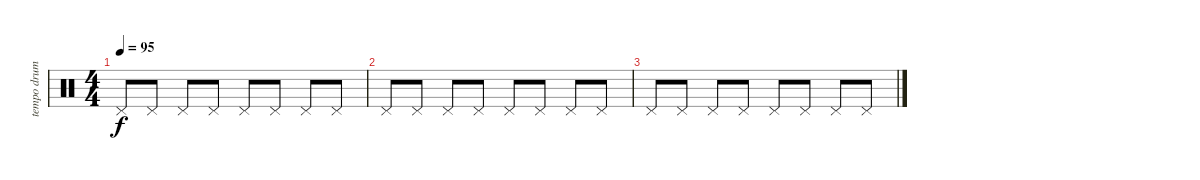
\track ("tempo drums" "tempo drum") {instrument percussion}
\staff {score}
\articulation defaults
\ts (4 4)
\tempo 95
\clef neutral
\ks c "Pedal Hi-Hat (hit)".8{dy f} "Pedal Hi-Hat (hit)".8 "Pedal Hi-Hat (hit)".8 "Pedal Hi-Hat (hit)".8 "Pedal Hi-Hat (hit)".8 "Pedal Hi-Hat (hit)".8 "Pedal Hi-Hat (hit)".8 "Pedal Hi-Hat (hit)".8
|
"Pedal Hi-Hat (hit)".8 "Pedal Hi-Hat (hit)".8 "Pedal Hi-Hat (hit)".8 "Pedal Hi-Hat (hit)".8 "Pedal Hi-Hat (hit)".8 "Pedal Hi-Hat (hit)".8 "Pedal Hi-Hat (hit)".8 "Pedal Hi-Hat (hit)".8 |
"Pedal Hi-Hat (hit)".8 "Pedal Hi-Hat (hit)".8 "Pedal Hi-Hat (hit)".8 "Pedal Hi-Hat (hit)".8 "Pedal Hi-Hat (hit)".8 "Pedal Hi-Hat (hit)".8 "Pedal Hi-Hat (hit)".8 "Pedal Hi-Hat (hit)".8
